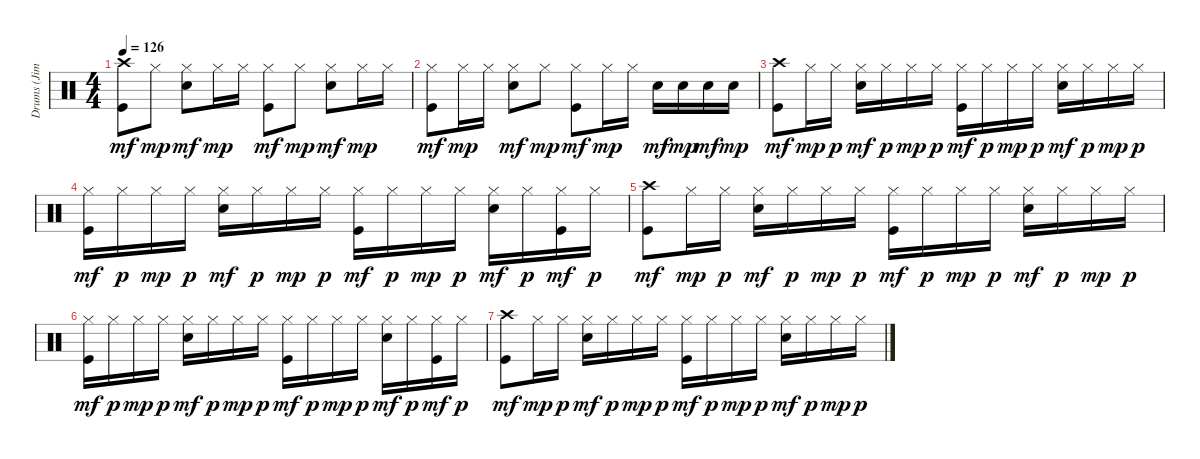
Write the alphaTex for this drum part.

\track ("Drums (Jim Keltner)" "Drums (Jim") {instrument percussion}
\staff {score}
\articulation defaults
\ts (4 4)
\tempo 126
\clef neutral
\ks c
("Crash high (hit)" "Kick (hit)").8{dy mf} "Hi-Hat (closed)".8{dy mp} ("Hi-Hat (closed)" "Snare (hit) 2").8{dy mf} "Hi-Hat (closed)".16{dy mp} "Hi-Hat (closed)".16 ("Hi-Hat (closed)" "Kick (hit)").8{dy mf} "Hi-Hat (closed)".8{dy mp} ("Hi-Hat (closed)" "Snare (hit) 2").8{dy mf} "Hi-Hat (closed)".16{dy mp} "Hi-Hat (closed)".16 |
("Hi-Hat (closed)" "Kick (hit)").8{dy mf} "Hi-Hat (closed)".16{dy mp} "Hi-Hat (closed)".16 ("Hi-Hat (closed)" "Snare (hit) 2").8{dy mf} "Hi-Hat (closed)".8{dy mp} ("Hi-Hat (closed)" "Kick (hit)").8{dy mf} "Hi-Hat (closed)".16{dy mp} "Hi-Hat (closed)".16 "Snare (hit) 2".16{dy mf} "Snare (hit) 2".16{dy mp} "Snare (hit) 2".16{dy mf} "Snare (hit) 2".16{dy mp} |
("Crash high (hit)" "Kick (hit)").8{dy mf} "Hi-Hat (closed)".16{dy mp} "Hi-Hat (closed)".16{dy p} ("Hi-Hat (closed)" "Snare (hit) 2").16{dy mf} "Hi-Hat (closed)".16{dy p} "Hi-Hat (closed)".16{dy mp} "Hi-Hat (closed)".16{dy p} ("Hi-Hat (closed)" "Kick (hit)").16{dy mf} "Hi-Hat (closed)".16{dy p} "Hi-Hat (closed)".16{dy mp} "Hi-Hat (closed)".16{dy p} ("Hi-Hat (closed)" "Snare (hit) 2").16{dy mf} "Hi-Hat (closed)".16{dy p} "Hi-Hat (closed)".16{dy mp} "Hi-Hat (closed)".16{dy p} |
("Hi-Hat (closed)" "Kick (hit)").16{dy mf} "Hi-Hat (closed)".16{dy p} "Hi-Hat (closed)".16{dy mp} "Hi-Hat (closed)".16{dy p} ("Hi-Hat (closed)" "Snare (hit) 2").16{dy mf} "Hi-Hat (closed)".16{dy p} "Hi-Hat (closed)".16{dy mp} "Hi-Hat (closed)".16{dy p} ("Hi-Hat (closed)" "Kick (hit)").16{dy mf} "Hi-Hat (closed)".16{dy p} "Hi-Hat (closed)".16{dy mp} "Hi-Hat (closed)".16{dy p} ("Hi-Hat (closed)" "Snare (hit) 2").16{dy mf} "Hi-Hat (closed)".16{dy p} ("Hi-Hat (closed)" "Kick (hit)").16{dy mf} "Hi-Hat (closed)".16{dy p} |
("Crash high (hit)" "Kick (hit)").8{dy mf} "Hi-Hat (closed)".16{dy mp} "Hi-Hat (closed)".16{dy p} ("Hi-Hat (closed)" "Snare (hit) 2").16{dy mf} "Hi-Hat (closed)".16{dy p} "Hi-Hat (closed)".16{dy mp} "Hi-Hat (closed)".16{dy p} ("Hi-Hat (closed)" "Kick (hit)").16{dy mf} "Hi-Hat (closed)".16{dy p} "Hi-Hat (closed)".16{dy mp} "Hi-Hat (closed)".16{dy p} ("Hi-Hat (closed)" "Snare (hit) 2").16{dy mf} "Hi-Hat (closed)".16{dy p} "Hi-Hat (closed)".16{dy mp} "Hi-Hat (closed)".16{dy p} |
("Hi-Hat (closed)" "Kick (hit)").16{dy mf} "Hi-Hat (closed)".16{dy p} "Hi-Hat (closed)".16{dy mp} "Hi-Hat (closed)".16{dy p} ("Hi-Hat (closed)" "Snare (hit) 2").16{dy mf} "Hi-Hat (closed)".16{dy p} "Hi-Hat (closed)".16{dy mp} "Hi-Hat (closed)".16{dy p} ("Hi-Hat (closed)" "Kick (hit)").16{dy mf} "Hi-Hat (closed)".16{dy p} "Hi-Hat (closed)".16{dy mp} "Hi-Hat (closed)".16{dy p} ("Hi-Hat (closed)" "Snare (hit) 2").16{dy mf} "Hi-Hat (closed)".16{dy p} ("Hi-Hat (closed)" "Kick (hit)").16{dy mf} "Hi-Hat (closed)".16{dy p} |
("Crash high (hit)" "Kick (hit)").8{dy mf} "Hi-Hat (closed)".16{dy mp} "Hi-Hat (closed)".16{dy p} ("Hi-Hat (closed)" "Snare (hit) 2").16{dy mf} "Hi-Hat (closed)".16{dy p} "Hi-Hat (closed)".16{dy mp} "Hi-Hat (closed)".16{dy p} ("Hi-Hat (closed)" "Kick (hit)").16{dy mf} "Hi-Hat (closed)".16{dy p} "Hi-Hat (closed)".16{dy mp} "Hi-Hat (closed)".16{dy p} ("Hi-Hat (closed)" "Snare (hit) 2").16{dy mf} "Hi-Hat (closed)".16{dy p} "Hi-Hat (closed)".16{dy mp} "Hi-Hat (closed)".16{dy p}
